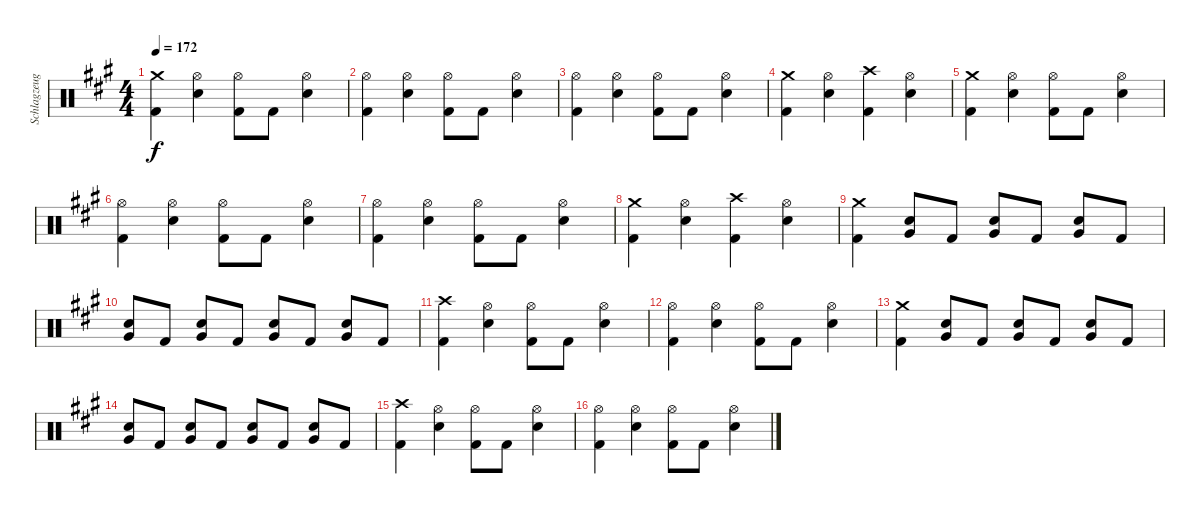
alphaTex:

\track ("Schlagzeug" "Schlagzeug") {instrument percussion}
\staff {score}
\articulation defaults
\ts (4 4)
\tempo 172
\clef neutral
\ks a
("Crash medium (hit)" "Kick (hit) 2").4{dy f} ("Hi-Hat (open)" "Snare (hit) 2").4 ("Hi-Hat (open)" "Kick (hit) 2").8 "Kick (hit) 2".8 ("Hi-Hat (open)" "Snare (hit) 2").4 |
("Hi-Hat (open)" "Kick (hit) 2").4 ("Hi-Hat (open)" "Snare (hit) 2").4 ("Hi-Hat (open)" "Kick (hit) 2").8 "Kick (hit) 2".8 ("Hi-Hat (open)" "Snare (hit) 2").4 |
("Hi-Hat (open)" "Kick (hit) 2").4 ("Hi-Hat (open)" "Snare (hit) 2").4 ("Hi-Hat (open)" "Kick (hit) 2").8 "Kick (hit) 2".8 ("Hi-Hat (open)" "Snare (hit) 2").4 |
("Crash medium (hit)" "Kick (hit) 2").4 ("Hi-Hat (open)" "Snare (hit) 2").4 ("Crash high (hit)" "Kick (hit) 2").4 ("Hi-Hat (open)" "Snare (hit) 2").4 |
("Crash medium (hit)" "Kick (hit) 2").4 ("Hi-Hat (open)" "Snare (hit) 2").4 ("Hi-Hat (open)" "Kick (hit) 2").8 "Kick (hit) 2".8 ("Hi-Hat (open)" "Snare (hit) 2").4 |
("Hi-Hat (open)" "Kick (hit) 2").4 ("Hi-Hat (open)" "Snare (hit) 2").4 ("Hi-Hat (open)" "Kick (hit) 2").8 "Kick (hit) 2".8 ("Hi-Hat (open)" "Snare (hit) 2").4 |
("Hi-Hat (open)" "Kick (hit) 2").4 ("Hi-Hat (open)" "Snare (hit) 2").4 ("Hi-Hat (open)" "Kick (hit) 2").8 "Kick (hit) 2".8 ("Hi-Hat (open)" "Snare (hit) 2").4 |
("Crash medium (hit)" "Kick (hit) 2").4 ("Hi-Hat (open)" "Snare (hit) 2").4 ("Crash high (hit)" "Kick (hit) 2").4 ("Hi-Hat (open)" "Snare (hit) 2").4 |
("Crash medium (hit)" "Kick (hit) 2").4 ("Snare (hit) 2" "Very Low Tom (hit)").8 "Kick (hit) 2".8 ("Snare (hit) 2" "Very Low Tom (hit)").8 "Kick (hit) 2".8 ("Snare (hit) 2" "Very Low Tom (hit)").8 "Kick (hit) 2".8 |
("Snare (hit) 2" "Very Low Tom (hit)").8 "Kick (hit) 2".8 ("Snare (hit) 2" "Very Low Tom (hit)").8 "Kick (hit) 2".8 ("Snare (hit) 2" "Very Low Tom (hit)").8 "Kick (hit) 2".8 ("Snare (hit) 2" "Very Low Tom (hit)").8 "Kick (hit) 2".8 |
("Crash high (hit)" "Kick (hit) 2").4 ("Hi-Hat (open)" "Snare (hit) 2").4 ("Hi-Hat (open)" "Kick (hit) 2").8 "Kick (hit) 2".8 ("Hi-Hat (open)" "Snare (hit) 2").4 |
("Hi-Hat (open)" "Kick (hit) 2").4 ("Hi-Hat (open)" "Snare (hit) 2").4 ("Hi-Hat (open)" "Kick (hit) 2").8 "Kick (hit) 2".8 ("Hi-Hat (open)" "Snare (hit) 2").4 |
("Crash medium (hit)" "Kick (hit) 2").4 ("Snare (hit) 2" "Very Low Tom (hit)").8 "Kick (hit) 2".8 ("Snare (hit) 2" "Very Low Tom (hit)").8 "Kick (hit) 2".8 ("Snare (hit) 2" "Very Low Tom (hit)").8 "Kick (hit) 2".8 |
("Snare (hit) 2" "Very Low Tom (hit)").8 "Kick (hit) 2".8 ("Snare (hit) 2" "Very Low Tom (hit)").8 "Kick (hit) 2".8 ("Snare (hit) 2" "Very Low Tom (hit)").8 "Kick (hit) 2".8 ("Snare (hit) 2" "Very Low Tom (hit)").8 "Kick (hit) 2".8 |
("Crash high (hit)" "Kick (hit) 2").4 ("Hi-Hat (open)" "Snare (hit) 2").4 ("Hi-Hat (open)" "Kick (hit) 2").8 "Kick (hit) 2".8 ("Hi-Hat (open)" "Snare (hit) 2").4 |
("Hi-Hat (open)" "Kick (hit) 2").4 ("Hi-Hat (open)" "Snare (hit) 2").4 ("Hi-Hat (open)" "Kick (hit) 2").8 "Kick (hit) 2".8 ("Hi-Hat (open)" "Snare (hit) 2").4
